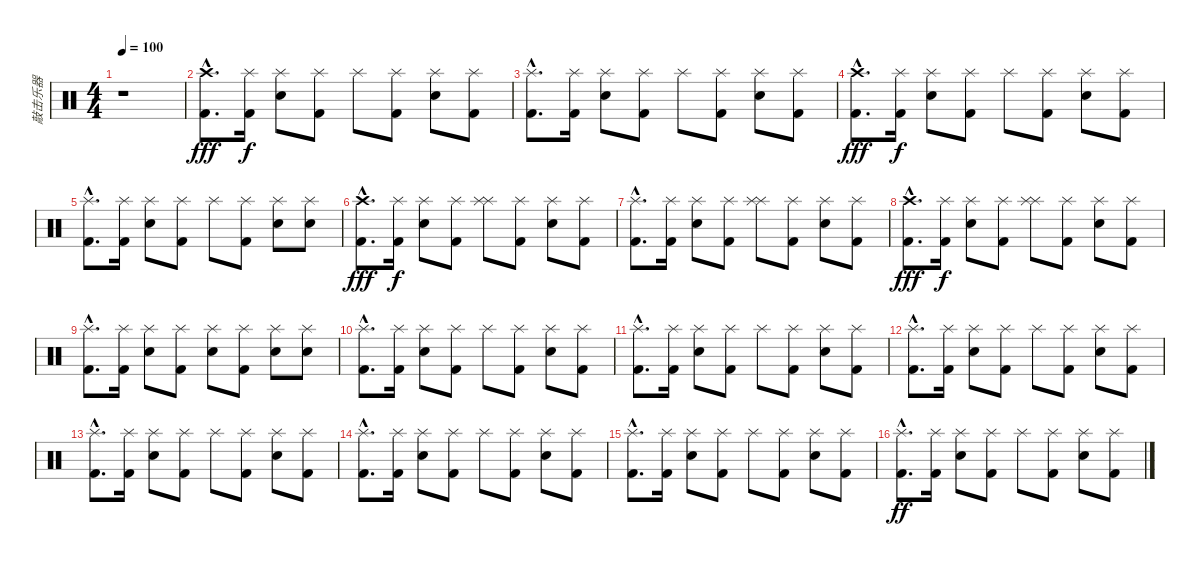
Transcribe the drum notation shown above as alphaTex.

\track ("敲击乐器" "敲击乐器") {instrument percussion}
\staff {score}
\articulation defaults
\ts (4 4)
\tempo 100
\clef neutral
\ks c
r.1{dy fff} |
("Kick (hit) 2"{hac} "Crash high (hit)"{hac}).8{d} ("Kick (hit) 2" "Splash (hit)").16{dy f} ("Electric Snare (hit)" "Splash (hit)").8 ("Kick (hit) 2" "Splash (hit)").8 "Splash (hit)".8 ("Kick (hit) 2" "Splash (hit)").8 ("Electric Snare (hit)" "Splash (hit)").8 ("Kick (hit) 2" "Splash (hit)").8 |
("Kick (hit) 2"{hac} "Splash (hit)"{hac}).8{d} ("Kick (hit) 2" "Splash (hit)").16 ("Electric Snare (hit)" "Splash (hit)").8 ("Kick (hit) 2" "Splash (hit)").8 "Splash (hit)".8 ("Kick (hit) 2" "Splash (hit)").8 ("Electric Snare (hit)" "Splash (hit)").8 ("Kick (hit) 2" "Splash (hit)").8 |
("Kick (hit) 2"{hac} "Crash high (hit)"{hac}).8{d dy fff} ("Kick (hit) 2" "Splash (hit)").16{dy f} ("Electric Snare (hit)" "Splash (hit)").8 ("Kick (hit) 2" "Splash (hit)").8 "Splash (hit)".8 ("Kick (hit) 2" "Splash (hit)").8 ("Electric Snare (hit)" "Splash (hit)").8 ("Kick (hit) 2" "Splash (hit)").8 |
("Kick (hit) 2"{hac} "Splash (hit)"{hac}).8{d} ("Kick (hit) 2" "Splash (hit)").16 ("Electric Snare (hit)" "Splash (hit)").8 ("Kick (hit) 2" "Splash (hit)").8 "Splash (hit)".8 ("Kick (hit) 2" "Splash (hit)").8 ("Electric Snare (hit)" "Splash (hit)").8 ("Electric Snare (hit)" "Splash (hit)").8 |
("Kick (hit) 2"{hac} "Crash high (hit)"{hac}).8{d dy fff} ("Kick (hit) 2" "Splash (hit)").16{dy f} ("Electric Snare (hit)" "Splash (hit)").8 ("Kick (hit) 2" "Splash (hit)").8 ("Splash (hit)" "Splash (hit)").8 ("Kick (hit) 2" "Splash (hit)").8 ("Electric Snare (hit)" "Splash (hit)").8 ("Kick (hit) 2" "Splash (hit)").8 |
("Kick (hit) 2"{hac} "Splash (hit)"{hac}).8{d} ("Kick (hit) 2" "Splash (hit)").16 ("Electric Snare (hit)" "Splash (hit)").8 ("Kick (hit) 2" "Splash (hit)").8 ("Splash (hit)" "Splash (hit)").8 ("Kick (hit) 2" "Splash (hit)").8 ("Electric Snare (hit)" "Splash (hit)").8 ("Kick (hit) 2" "Splash (hit)").8 |
("Kick (hit) 2"{hac} "Crash high (hit)"{hac}).8{d dy fff} ("Kick (hit) 2" "Splash (hit)").16{dy f} ("Electric Snare (hit)" "Splash (hit)").8 ("Kick (hit) 2" "Splash (hit)").8 ("Splash (hit)" "Splash (hit)").8 ("Kick (hit) 2" "Splash (hit)").8 ("Electric Snare (hit)" "Splash (hit)").8 ("Kick (hit) 2" "Splash (hit)").8 |
("Kick (hit) 2"{hac} "Splash (hit)"{hac}).8{d} ("Kick (hit) 2" "Splash (hit)").16 ("Electric Snare (hit)" "Splash (hit)").8 ("Kick (hit) 2" "Splash (hit)").8 ("Electric Snare (hit)" "Splash (hit)").8 ("Kick (hit) 2" "Splash (hit)").8 ("Electric Snare (hit)" "Splash (hit)").8 ("Electric Snare (hit)" "Splash (hit)").8 |
("Kick (hit) 2"{hac} "Splash (hit)"{hac}).8{d} ("Kick (hit) 2" "Splash (hit)").16 ("Electric Snare (hit)" "Splash (hit)").8 ("Kick (hit) 2" "Splash (hit)").8 "Splash (hit)".8 ("Kick (hit) 2" "Splash (hit)").8 ("Electric Snare (hit)" "Splash (hit)").8 ("Kick (hit) 2" "Splash (hit)").8 |
("Kick (hit) 2"{hac} "Splash (hit)"{hac}).8{d} ("Kick (hit) 2" "Splash (hit)").16 ("Electric Snare (hit)" "Splash (hit)").8 ("Kick (hit) 2" "Splash (hit)").8 "Splash (hit)".8 ("Kick (hit) 2" "Splash (hit)").8 ("Electric Snare (hit)" "Splash (hit)").8 ("Kick (hit) 2" "Splash (hit)").8 |
("Kick (hit) 2"{hac} "Splash (hit)"{hac}).8{d} ("Kick (hit) 2" "Splash (hit)").16 ("Electric Snare (hit)" "Splash (hit)").8 ("Kick (hit) 2" "Splash (hit)").8 "Splash (hit)".8 ("Kick (hit) 2" "Splash (hit)").8 ("Electric Snare (hit)" "Splash (hit)").8 ("Kick (hit) 2" "Splash (hit)").8 |
("Kick (hit) 2"{hac} "Splash (hit)"{hac}).8{d} ("Kick (hit) 2" "Splash (hit)").16 ("Electric Snare (hit)" "Splash (hit)").8 ("Kick (hit) 2" "Splash (hit)").8 "Splash (hit)".8 ("Kick (hit) 2" "Splash (hit)").8 ("Electric Snare (hit)" "Splash (hit)").8 ("Kick (hit) 2" "Splash (hit)").8 |
("Kick (hit) 2"{hac} "Splash (hit)"{hac}).8{d} ("Kick (hit) 2" "Splash (hit)").16 ("Electric Snare (hit)" "Splash (hit)").8 ("Kick (hit) 2" "Splash (hit)").8 "Splash (hit)".8 ("Kick (hit) 2" "Splash (hit)").8 ("Electric Snare (hit)" "Splash (hit)").8 ("Kick (hit) 2" "Splash (hit)").8 |
("Kick (hit) 2"{hac} "Splash (hit)"{hac}).8{d} ("Kick (hit) 2" "Splash (hit)").16 ("Electric Snare (hit)" "Splash (hit)").8 ("Kick (hit) 2" "Splash (hit)").8 "Splash (hit)".8 ("Kick (hit) 2" "Splash (hit)").8 ("Electric Snare (hit)" "Splash (hit)").8 ("Kick (hit) 2" "Splash (hit)").8 |
("Kick (hit) 2"{hac} "Splash (hit)"{hac}).8{d dy ff} ("Kick (hit) 2" "Splash (hit)").16 ("Electric Snare (hit)" "Splash (hit)").8 ("Kick (hit) 2" "Splash (hit)").8 "Splash (hit)".8 ("Kick (hit) 2" "Splash (hit)").8 ("Electric Snare (hit)" "Splash (hit)").8 ("Kick (hit) 2" "Splash (hit)").8
